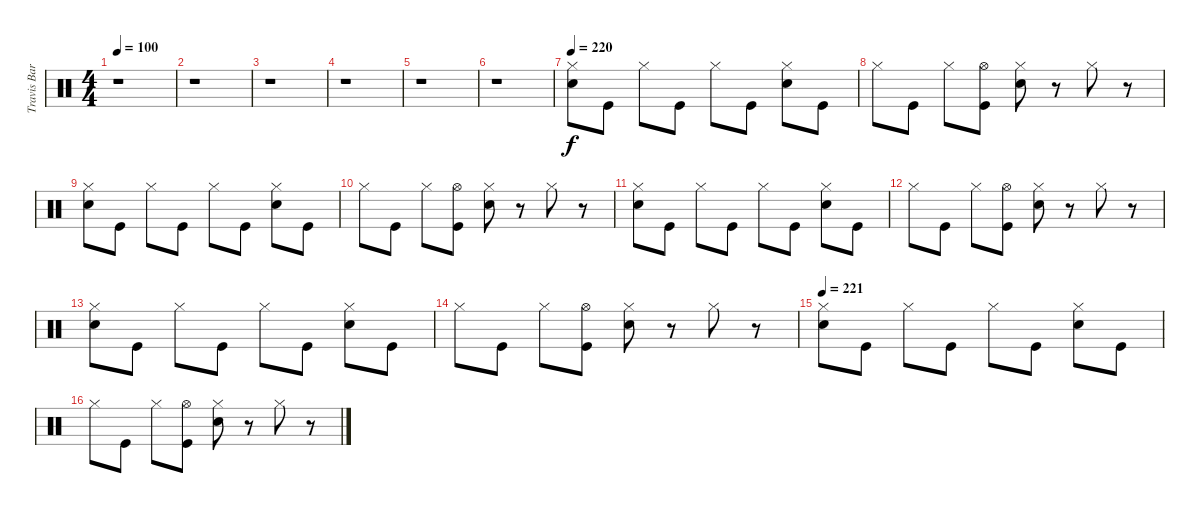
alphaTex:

\track ("Travis Barker" "Travis Bar") {instrument percussion}
\staff {score}
\articulation defaults
\ts (4 4)
\tempo 100
\clef neutral
\ks c
r.1{dy f} |
r.1 |
r.1 |
r.1 |
r.1 |
r.1 |
\tempo 220
("Electric Snare (hit)" "Hi-Hat (closed)").8 "Kick (hit)".8 "Hi-Hat (closed)".8 "Kick (hit)".8 "Hi-Hat (closed)".8 "Kick (hit)".8 ("Electric Snare (hit)" "Hi-Hat (closed)").8 "Kick (hit)".8 |
"Hi-Hat (closed)".8 "Kick (hit)".8 "Hi-Hat (closed)".8 ("Kick (hit)" "Hi-Hat (open)").8 ("Electric Snare (hit)" "Hi-Hat (closed)").8 r.8 "Hi-Hat (closed)".8 r.8 |
("Electric Snare (hit)" "Hi-Hat (closed)").8 "Kick (hit)".8 "Hi-Hat (closed)".8 "Kick (hit)".8 "Hi-Hat (closed)".8 "Kick (hit)".8 ("Electric Snare (hit)" "Hi-Hat (closed)").8 "Kick (hit)".8 |
"Hi-Hat (closed)".8 "Kick (hit)".8 "Hi-Hat (closed)".8 ("Kick (hit)" "Hi-Hat (open)").8 ("Electric Snare (hit)" "Hi-Hat (closed)").8 r.8 "Hi-Hat (closed)".8 r.8 |
("Electric Snare (hit)" "Hi-Hat (closed)").8 "Kick (hit)".8 "Hi-Hat (closed)".8 "Kick (hit)".8 "Hi-Hat (closed)".8 "Kick (hit)".8 ("Electric Snare (hit)" "Hi-Hat (closed)").8 "Kick (hit)".8 |
"Hi-Hat (closed)".8 "Kick (hit)".8 "Hi-Hat (closed)".8 ("Kick (hit)" "Hi-Hat (open)").8 ("Electric Snare (hit)" "Hi-Hat (closed)").8 r.8 "Hi-Hat (closed)".8 r.8 |
("Electric Snare (hit)" "Hi-Hat (closed)").8 "Kick (hit)".8 "Hi-Hat (closed)".8 "Kick (hit)".8 "Hi-Hat (closed)".8 "Kick (hit)".8 ("Electric Snare (hit)" "Hi-Hat (closed)").8 "Kick (hit)".8 |
"Hi-Hat (closed)".8 "Kick (hit)".8 "Hi-Hat (closed)".8 ("Kick (hit)" "Hi-Hat (open)").8 ("Electric Snare (hit)" "Hi-Hat (closed)").8 r.8 "Hi-Hat (closed)".8 r.8 |
\tempo 221
("Electric Snare (hit)" "Hi-Hat (closed)").8 "Kick (hit)".8 "Hi-Hat (closed)".8 "Kick (hit)".8 "Hi-Hat (closed)".8 "Kick (hit)".8 ("Electric Snare (hit)" "Hi-Hat (closed)").8 "Kick (hit)".8 |
"Hi-Hat (closed)".8 "Kick (hit)".8 "Hi-Hat (closed)".8 ("Kick (hit)" "Hi-Hat (open)").8 ("Electric Snare (hit)" "Hi-Hat (closed)").8 r.8 "Hi-Hat (closed)".8 r.8
